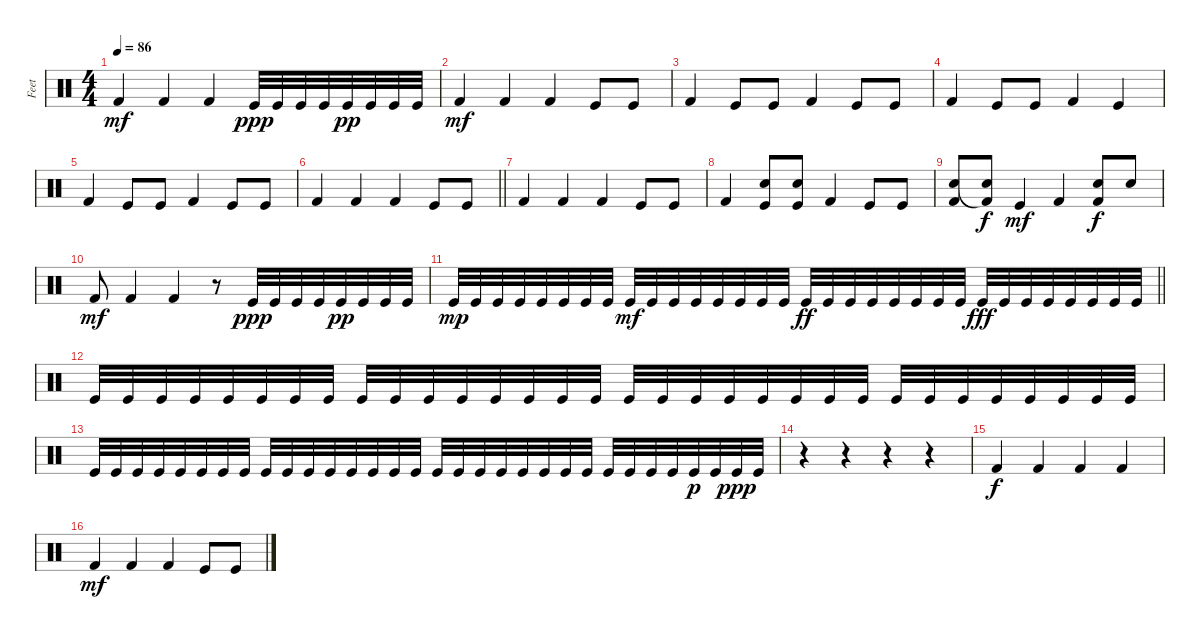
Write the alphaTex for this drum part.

\track ("Feet" "Feet") {instrument percussion}
\staff {score}
\articulation defaults
\ts (4 4)
\tempo 86
\clef neutral
\ks aminor "Kick (hit) 2".4{dy mf} "Kick (hit) 2".4 "Kick (hit) 2".4 "Kick (hit)".32{dy ppp} "Kick (hit)".32 "Kick (hit)".32 "Kick (hit)".32 "Kick (hit)".32{dy pp} "Kick (hit)".32 "Kick (hit)".32 "Kick (hit)".32
|
"Kick (hit) 2".4{dy mf} "Kick (hit) 2".4 "Kick (hit) 2".4 "Kick (hit)".8 "Kick (hit)".8 |
"Kick (hit) 2".4 "Kick (hit)".8 "Kick (hit)".8 "Kick (hit) 2".4 "Kick (hit)".8 "Kick (hit)".8 |
"Kick (hit) 2".4 "Kick (hit)".8 "Kick (hit)".8 "Kick (hit) 2".4 "Kick (hit)".4 |
"Kick (hit) 2".4 "Kick (hit)".8 "Kick (hit)".8 "Kick (hit) 2".4 "Kick (hit)".8 "Kick (hit)".8 |
\barLineRight lightlight "Kick (hit) 2".4 "Kick (hit) 2".4 "Kick (hit) 2".4 "Kick (hit)".8 "Kick (hit)".8
|
"Kick (hit) 2".4 "Kick (hit) 2".4 "Kick (hit) 2".4 "Kick (hit)".8 "Kick (hit)".8 |
"Kick (hit) 2".4 ("Hand Clap (hit)" "Kick (hit)").8 ("Kick (hit)" "Hand Clap (hit)").8 "Kick (hit) 2".4 "Kick (hit)".8 "Kick (hit)".8 |
("Kick (hit) 2" "Hand Clap (hit)").8 ("Hand Clap (hit)" "Kick (hit) 2"{t}).8{dy f} "Kick (hit)".4{dy mf} "Kick (hit) 2".4 ("Kick (hit) 2" "Hand Clap (hit)").8{dy f} "Hand Clap (hit)".8 |
"Kick (hit) 2".8{dy mf} "Kick (hit) 2".4 "Kick (hit) 2".4 r.8 "Kick (hit)".32{dy ppp} "Kick (hit)".32 "Kick (hit)".32 "Kick (hit)".32 "Kick (hit)".32{dy pp} "Kick (hit)".32 "Kick (hit)".32 "Kick (hit)".32 |
\barLineRight lightlight "Kick (hit)".32{dy mp} "Kick (hit)".32 "Kick (hit)".32 "Kick (hit)".32 "Kick (hit)".32 "Kick (hit)".32 "Kick (hit)".32 "Kick (hit)".32 "Kick (hit)".32{dy mf} "Kick (hit)".32 "Kick (hit)".32 "Kick (hit)".32 "Kick (hit)".32 "Kick (hit)".32 "Kick (hit)".32 "Kick (hit)".32 "Kick (hit)".32{dy ff} "Kick (hit)".32 "Kick (hit)".32 "Kick (hit)".32 "Kick (hit)".32 "Kick (hit)".32 "Kick (hit)".32 "Kick (hit)".32 "Kick (hit)".32{dy fff} "Kick (hit)".32 "Kick (hit)".32 "Kick (hit)".32 "Kick (hit)".32 "Kick (hit)".32 "Kick (hit)".32 "Kick (hit)".32
|
"Kick (hit)".32 "Kick (hit)".32 "Kick (hit)".32 "Kick (hit)".32 "Kick (hit)".32 "Kick (hit)".32 "Kick (hit)".32 "Kick (hit)".32 "Kick (hit)".32 "Kick (hit)".32 "Kick (hit)".32 "Kick (hit)".32 "Kick (hit)".32 "Kick (hit)".32 "Kick (hit)".32 "Kick (hit)".32 "Kick (hit)".32 "Kick (hit)".32 "Kick (hit)".32 "Kick (hit)".32 "Kick (hit)".32 "Kick (hit)".32 "Kick (hit)".32 "Kick (hit)".32 "Kick (hit)".32 "Kick (hit)".32 "Kick (hit)".32 "Kick (hit)".32 "Kick (hit)".32 "Kick (hit)".32 "Kick (hit)".32 "Kick (hit)".32 |
"Kick (hit)".32 "Kick (hit)".32 "Kick (hit)".32 "Kick (hit)".32 "Kick (hit)".32 "Kick (hit)".32 "Kick (hit)".32 "Kick (hit)".32 "Kick (hit)".32 "Kick (hit)".32 "Kick (hit)".32 "Kick (hit)".32 "Kick (hit)".32 "Kick (hit)".32 "Kick (hit)".32 "Kick (hit)".32 "Kick (hit)".32 "Kick (hit)".32 "Kick (hit)".32 "Kick (hit)".32 "Kick (hit)".32 "Kick (hit)".32 "Kick (hit)".32 "Kick (hit)".32 "Kick (hit)".32 "Kick (hit)".32 "Kick (hit)".32 "Kick (hit)".32 "Kick (hit)".32{dy p} "Kick (hit)".32 "Kick (hit)".32{dy ppp} "Kick (hit)".32 |
r.4 r.4 r.4 r.4 |
"Kick (hit) 2".4{dy f} "Kick (hit) 2".4 "Kick (hit) 2".4 "Kick (hit) 2".4 |
"Kick (hit) 2".4{dy mf} "Kick (hit) 2".4 "Kick (hit) 2".4 "Kick (hit)".8 "Kick (hit)".8
